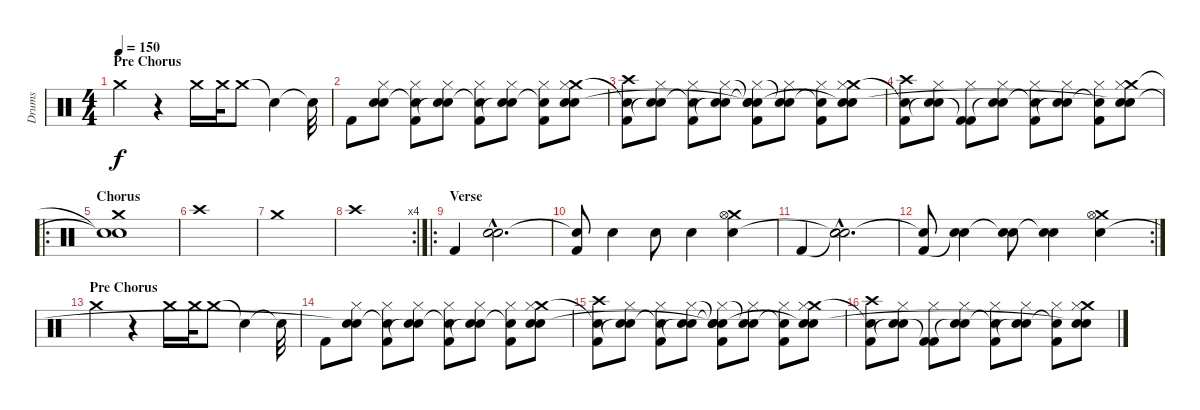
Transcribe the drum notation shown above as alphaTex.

\track ("Drums" "Drums") {instrument percussion}
\staff {score}
\articulation defaults
\ts (4 4)
\section ("" "Pre Chorus")
\tempo 150
\clef neutral
\ks c "Crash medium (hit)".4{dy f}
r.4 "Crash medium (hit)".16 "Crash medium (hit)".32 "Crash medium (hit)".8 "Snare (hit)"{t}.4 "Snare (hit)"{t}.32 |
"Kick (hit) 2".8 ("Hi-Hat (closed)" "Snare (hit) 2" "Snare (hit)"{t}).8 ("Hi-Hat (closed)" "Snare (hit)"{t} "Kick (hit) 2").8 ("Hi-Hat (closed)" "Snare (hit) 2" "Snare (hit)"{t}).8 ("Hi-Hat (closed)" "Snare (hit)"{t} "Kick (hit) 2").8 ("Hi-Hat (closed)" "Snare (hit) 2" "Snare (hit)"{t}).8 ("Hi-Hat (closed)" "Snare (hit)"{t} "Kick (hit) 2").8 ("Crash medium (hit)" "Hi-Hat (closed)" "Snare (hit) 2" "Snare (hit)").8 |
("Crash high (hit)" "Snare (hit)"{t} "Kick (hit) 2").8 ("Hi-Hat (closed)" "Snare (hit) 2" "Snare (hit)"{t}).8 ("Hi-Hat (closed)" "Snare (hit) 2"{t} "Kick (hit) 2").8 ("Hi-Hat (closed)" "Snare (hit) 2" "Snare (hit)"{t}).8 ("Snare (hit)"{t} "Snare (hit)"{t} "Hi-Hat (closed)" "Snare (hit) 2"{t} "Kick (hit) 2").8 ("Hi-Hat (closed)" "Snare (hit) 2" "Snare (hit)"{t}).8 ("Hi-Hat (closed)" "Snare (hit)"{t} "Kick (hit) 2").8 ("Crash medium (hit)" "Hi-Hat (closed)" "Snare (hit) 2" "Snare (hit)"{t}).8 |
("Crash high (hit)" "Snare (hit)"{t} "Kick (hit) 2").8 ("Hi-Hat (closed)" "Snare (hit) 2" "Snare (hit)"{t}).8 ("Hi-Hat (closed)" "Kick (hit) 2"{t} "Kick (hit) 2").8 ("Hi-Hat (closed)" "Snare (hit) 2" "Snare (hit)"{t}).8 ("Hi-Hat (closed)" "Snare (hit)"{t} "Kick (hit) 2").8 ("Hi-Hat (closed)" "Snare (hit) 2" "Snare (hit)"{t}).8 ("Hi-Hat (closed)" "Snare (hit)"{t} "Kick (hit) 2").8 ("Crash medium (hit)" "Hi-Hat (closed)" "Snare (hit) 2" "Snare (hit)"{t}).8 |
\ro
\section ("" "Chorus")
("Crash medium (hit)" "Snare (hit)"{t} "Snare (hit)"{t}).1 |
"Crash high (hit)".1 |
"Crash medium (hit)".1 |
\rc 4 "Crash high (hit)".1
|
\ro
\section ("" "Verse")
"Kick (hit) 2".4 ("Snare (hit) 2"{hac} "Snare (hit)"{hac}).2{d} |
("Snare (hit)"{t} "Kick (hit) 2").8 "Snare (hit) 2".4 "Snare (hit) 2".8 "Snare (hit) 2".4 ("Crash medium (hit)" "Hi-Hat (open)" "Snare (hit) 2").4 |
"Kick (hit) 2".4 ("Snare (hit)"{hac t} "Snare (hit) 2"{hac} "Snare (hit)"{hac t}).2{d} |
\rc 2
("Snare (hit)"{t} "Kick (hit) 2").8 ("Snare (hit) 2" "Snare (hit)"{t}).4 ("Snare (hit)"{t} "Snare (hit) 2").8 ("Snare (hit) 2" "Snare (hit)"{t}).4 ("Crash medium (hit)" "Hi-Hat (open)" "Snare (hit) 2").4 |
\section ("" "Pre Chorus")
"Crash medium (hit)".4 r.4 "Crash medium (hit)".16 "Crash medium (hit)".32 "Crash medium (hit)".8 "Snare (hit)"{t}.4 "Snare (hit)"{t}.32 |
"Kick (hit) 2".8 ("Hi-Hat (closed)" "Snare (hit) 2" "Snare (hit)"{t}).8 ("Hi-Hat (closed)" "Snare (hit)"{t} "Kick (hit) 2").8 ("Hi-Hat (closed)" "Snare (hit) 2" "Snare (hit)"{t}).8 ("Hi-Hat (closed)" "Snare (hit)"{t} "Kick (hit) 2").8 ("Hi-Hat (closed)" "Snare (hit) 2" "Snare (hit)"{t}).8 ("Hi-Hat (closed)" "Snare (hit)"{t} "Kick (hit) 2").8 ("Crash medium (hit)" "Hi-Hat (closed)" "Snare (hit) 2" "Snare (hit)").8 |
("Crash high (hit)" "Snare (hit)"{t} "Kick (hit) 2").8 ("Hi-Hat (closed)" "Snare (hit) 2" "Snare (hit)"{t}).8 ("Hi-Hat (closed)" "Snare (hit) 2"{t} "Kick (hit) 2").8 ("Hi-Hat (closed)" "Snare (hit) 2" "Snare (hit)"{t}).8 ("Snare (hit)"{t} "Snare (hit)"{t} "Hi-Hat (closed)" "Snare (hit) 2"{t} "Kick (hit) 2").8 ("Hi-Hat (closed)" "Snare (hit) 2" "Snare (hit)"{t}).8 ("Hi-Hat (closed)" "Snare (hit)"{t} "Kick (hit) 2").8 ("Crash medium (hit)" "Hi-Hat (closed)" "Snare (hit) 2" "Snare (hit)"{t}).8 |
("Crash high (hit)" "Snare (hit)"{t} "Kick (hit) 2").8 ("Hi-Hat (closed)" "Snare (hit) 2" "Snare (hit)"{t}).8 ("Hi-Hat (closed)" "Kick (hit) 2"{t} "Kick (hit) 2").8 ("Hi-Hat (closed)" "Snare (hit) 2" "Snare (hit)"{t}).8 ("Hi-Hat (closed)" "Snare (hit)"{t} "Kick (hit) 2").8 ("Hi-Hat (closed)" "Snare (hit) 2" "Snare (hit)"{t}).8 ("Hi-Hat (closed)" "Snare (hit)"{t} "Kick (hit) 2").8 ("Crash medium (hit)" "Hi-Hat (closed)" "Snare (hit) 2" "Snare (hit)"{t}).8
